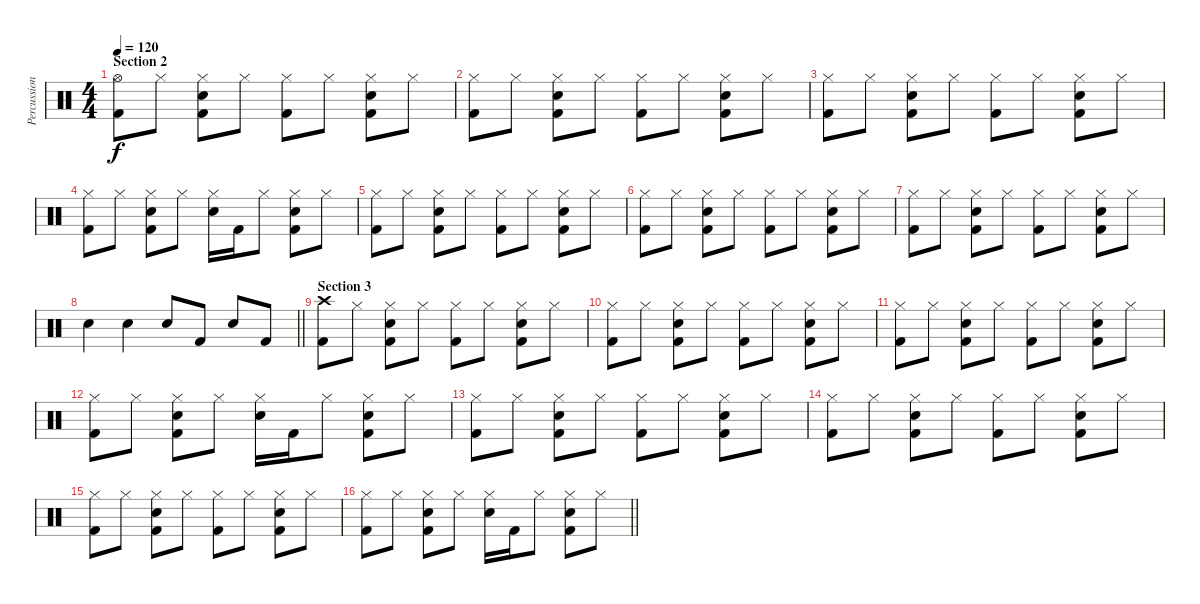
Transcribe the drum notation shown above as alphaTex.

\track ("Percussion" "Percussion") {instrument percussion}
\staff {score}
\articulation defaults
\ts (4 4)
\section ("" "Section 2")
\tempo 120
\clef neutral
\ks c
("Kick (hit) 2" "Hi-Hat (open)").8{dy f} "Hi-Hat (closed)".8 ("Kick (hit) 2" "Electric Snare (hit)" "Hi-Hat (closed)").8 "Hi-Hat (closed)".8 ("Kick (hit) 2" "Hi-Hat (closed)").8 "Hi-Hat (closed)".8 ("Kick (hit) 2" "Electric Snare (hit)" "Hi-Hat (closed)").8 "Hi-Hat (closed)".8 |
("Kick (hit) 2" "Hi-Hat (closed)").8 "Hi-Hat (closed)".8 ("Kick (hit) 2" "Electric Snare (hit)" "Hi-Hat (closed)").8 "Hi-Hat (closed)".8 ("Kick (hit) 2" "Hi-Hat (closed)").8 "Hi-Hat (closed)".8 ("Kick (hit) 2" "Electric Snare (hit)" "Hi-Hat (closed)").8 "Hi-Hat (closed)".8 |
("Kick (hit) 2" "Hi-Hat (closed)").8 "Hi-Hat (closed)".8 ("Kick (hit) 2" "Electric Snare (hit)" "Hi-Hat (closed)").8 "Hi-Hat (closed)".8 ("Kick (hit) 2" "Hi-Hat (closed)").8 "Hi-Hat (closed)".8 ("Kick (hit) 2" "Electric Snare (hit)" "Hi-Hat (closed)").8 "Hi-Hat (closed)".8 |
("Kick (hit) 2" "Hi-Hat (closed)").8 "Hi-Hat (closed)".8 ("Kick (hit) 2" "Electric Snare (hit)" "Hi-Hat (closed)").8 "Hi-Hat (closed)".8 ("Electric Snare (hit)" "Hi-Hat (closed)").16 "Kick (hit) 2".16 "Hi-Hat (closed)".8 ("Kick (hit) 2" "Electric Snare (hit)" "Hi-Hat (closed)").8 "Hi-Hat (closed)".8 |
("Kick (hit) 2" "Hi-Hat (closed)").8 "Hi-Hat (closed)".8 ("Kick (hit) 2" "Electric Snare (hit)" "Hi-Hat (closed)").8 "Hi-Hat (closed)".8 ("Kick (hit) 2" "Hi-Hat (closed)").8 "Hi-Hat (closed)".8 ("Kick (hit) 2" "Electric Snare (hit)" "Hi-Hat (closed)").8 "Hi-Hat (closed)".8 |
("Kick (hit) 2" "Hi-Hat (closed)").8 "Hi-Hat (closed)".8 ("Kick (hit) 2" "Electric Snare (hit)" "Hi-Hat (closed)").8 "Hi-Hat (closed)".8 ("Kick (hit) 2" "Hi-Hat (closed)").8 "Hi-Hat (closed)".8 ("Kick (hit) 2" "Electric Snare (hit)" "Hi-Hat (closed)").8 "Hi-Hat (closed)".8 |
("Kick (hit) 2" "Hi-Hat (closed)").8 "Hi-Hat (closed)".8 ("Kick (hit) 2" "Electric Snare (hit)" "Hi-Hat (closed)").8 "Hi-Hat (closed)".8 ("Kick (hit) 2" "Hi-Hat (closed)").8 "Hi-Hat (closed)".8 ("Kick (hit) 2" "Electric Snare (hit)" "Hi-Hat (closed)").8 "Hi-Hat (closed)".8 |
\barLineRight lightlight "Electric Snare (hit)".4 "Electric Snare (hit)".4 "Electric Snare (hit)".8 "Kick (hit) 2".8 "Electric Snare (hit)".8 "Kick (hit) 2".8
|
\section ("" "Section 3")
("Kick (hit) 2" "Crash high (hit)").8 "Hi-Hat (closed)".8 ("Kick (hit) 2" "Electric Snare (hit)" "Hi-Hat (closed)").8 "Hi-Hat (closed)".8 ("Kick (hit) 2" "Hi-Hat (closed)").8 "Hi-Hat (closed)".8 ("Kick (hit) 2" "Electric Snare (hit)" "Hi-Hat (closed)").8 "Hi-Hat (closed)".8 |
("Kick (hit) 2" "Hi-Hat (closed)").8 "Hi-Hat (closed)".8 ("Kick (hit) 2" "Electric Snare (hit)" "Hi-Hat (closed)").8 "Hi-Hat (closed)".8 ("Kick (hit) 2" "Hi-Hat (closed)").8 "Hi-Hat (closed)".8 ("Kick (hit) 2" "Electric Snare (hit)" "Hi-Hat (closed)").8 "Hi-Hat (closed)".8 |
("Kick (hit) 2" "Hi-Hat (closed)").8 "Hi-Hat (closed)".8 ("Kick (hit) 2" "Electric Snare (hit)" "Hi-Hat (closed)").8 "Hi-Hat (closed)".8 ("Kick (hit) 2" "Hi-Hat (closed)").8 "Hi-Hat (closed)".8 ("Kick (hit) 2" "Electric Snare (hit)" "Hi-Hat (closed)").8 "Hi-Hat (closed)".8 |
("Kick (hit) 2" "Hi-Hat (closed)").8 "Hi-Hat (closed)".8 ("Kick (hit) 2" "Electric Snare (hit)" "Hi-Hat (closed)").8 "Hi-Hat (closed)".8 ("Electric Snare (hit)" "Hi-Hat (closed)").16 "Kick (hit) 2".16 "Hi-Hat (closed)".8 ("Kick (hit) 2" "Electric Snare (hit)" "Hi-Hat (closed)").8 "Hi-Hat (closed)".8 |
("Kick (hit) 2" "Hi-Hat (closed)").8 "Hi-Hat (closed)".8 ("Kick (hit) 2" "Electric Snare (hit)" "Hi-Hat (closed)").8 "Hi-Hat (closed)".8 ("Kick (hit) 2" "Hi-Hat (closed)").8 "Hi-Hat (closed)".8 ("Kick (hit) 2" "Electric Snare (hit)" "Hi-Hat (closed)").8 "Hi-Hat (closed)".8 |
("Kick (hit) 2" "Hi-Hat (closed)").8 "Hi-Hat (closed)".8 ("Kick (hit) 2" "Electric Snare (hit)" "Hi-Hat (closed)").8 "Hi-Hat (closed)".8 ("Kick (hit) 2" "Hi-Hat (closed)").8 "Hi-Hat (closed)".8 ("Kick (hit) 2" "Electric Snare (hit)" "Hi-Hat (closed)").8 "Hi-Hat (closed)".8 |
("Kick (hit) 2" "Hi-Hat (closed)").8 "Hi-Hat (closed)".8 ("Kick (hit) 2" "Electric Snare (hit)" "Hi-Hat (closed)").8 "Hi-Hat (closed)".8 ("Kick (hit) 2" "Hi-Hat (closed)").8 "Hi-Hat (closed)".8 ("Kick (hit) 2" "Electric Snare (hit)" "Hi-Hat (closed)").8 "Hi-Hat (closed)".8 |
\barLineRight lightlight
("Kick (hit) 2" "Hi-Hat (closed)").8 "Hi-Hat (closed)".8 ("Kick (hit) 2" "Electric Snare (hit)" "Hi-Hat (closed)").8 "Hi-Hat (closed)".8 ("Electric Snare (hit)" "Hi-Hat (closed)").16 "Kick (hit) 2".16 "Hi-Hat (closed)".8 ("Kick (hit) 2" "Electric Snare (hit)" "Hi-Hat (closed)").8 "Hi-Hat (closed)".8
